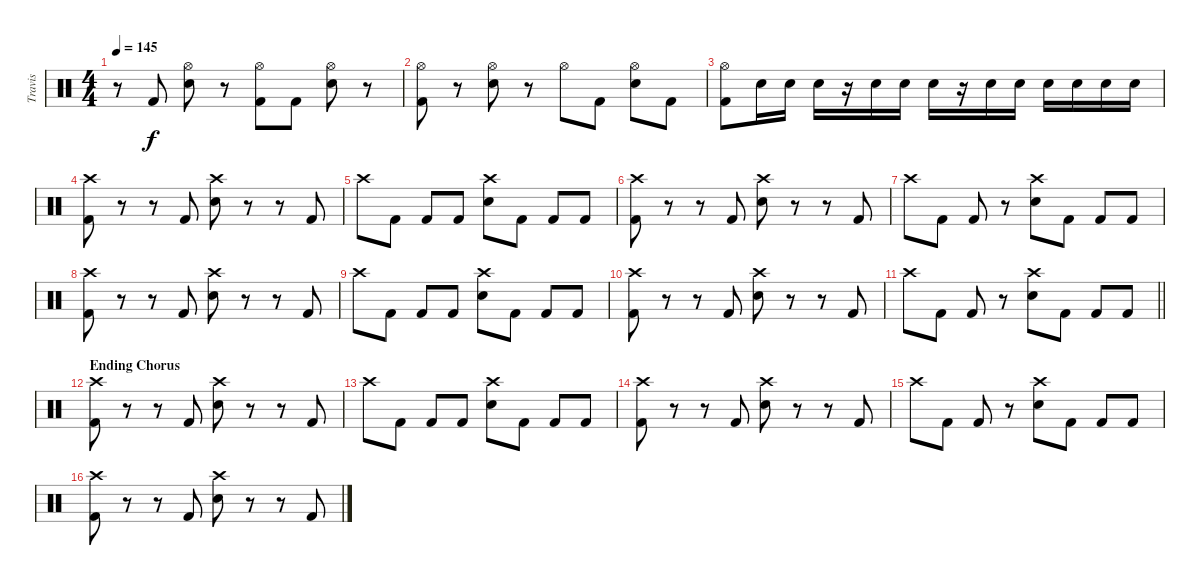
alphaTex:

\track ("Travis" "Travis") {instrument percussion}
\staff {score}
\articulation defaults
\ts (4 4)
\tempo 145
\clef neutral
\ks c
r.8{dy f} "Kick (hit) 2".8 ("Hi-Hat (open)" "Electric Snare (hit)").8 r.8 ("Hi-Hat (open)" "Kick (hit) 2").8 "Kick (hit) 2".8 ("Hi-Hat (open)" "Electric Snare (hit)").8 r.8 |
("Hi-Hat (open)" "Kick (hit) 2").8 r.8 ("Hi-Hat (open)" "Electric Snare (hit)").8 r.8 "Hi-Hat (open)".8 "Kick (hit) 2".8 ("Hi-Hat (open)" "Electric Snare (hit)").8 "Kick (hit) 2".8 |
("Hi-Hat (open)" "Kick (hit) 2").8 "Electric Snare (hit)".16 "Electric Snare (hit)".16 "Electric Snare (hit)".16 r.16 "Electric Snare (hit)".16 "Electric Snare (hit)".16 "Electric Snare (hit)".16 r.16 "Electric Snare (hit)".16 "Electric Snare (hit)".16 "Electric Snare (hit)".16 "Electric Snare (hit)".16 "Electric Snare (hit)".16 "Electric Snare (hit)".16 |
("Crash high (hit)" "Kick (hit) 2").8 r.8 r.8 "Kick (hit) 2".8 ("Crash high (hit)" "Electric Snare (hit)").8 r.8 r.8 "Kick (hit) 2".8 |
"Crash high (hit)".8 "Kick (hit) 2".8 "Kick (hit) 2".8 "Kick (hit) 2".8 ("Crash high (hit)" "Electric Snare (hit)").8 "Kick (hit) 2".8 "Kick (hit) 2".8 "Kick (hit) 2".8 |
("Crash high (hit)" "Kick (hit) 2").8 r.8 r.8 "Kick (hit) 2".8 ("Crash high (hit)" "Electric Snare (hit)").8 r.8 r.8 "Kick (hit) 2".8 |
"Crash high (hit)".8 "Kick (hit) 2".8 "Kick (hit) 2".8 r.8 ("Crash high (hit)" "Electric Snare (hit)").8 "Kick (hit) 2".8 "Kick (hit) 2".8 "Kick (hit) 2".8 |
("Crash high (hit)" "Kick (hit) 2").8 r.8 r.8 "Kick (hit) 2".8 ("Crash high (hit)" "Electric Snare (hit)").8 r.8 r.8 "Kick (hit) 2".8 |
"Crash high (hit)".8 "Kick (hit) 2".8 "Kick (hit) 2".8 "Kick (hit) 2".8 ("Crash high (hit)" "Electric Snare (hit)").8 "Kick (hit) 2".8 "Kick (hit) 2".8 "Kick (hit) 2".8 |
("Crash high (hit)" "Kick (hit) 2").8 r.8 r.8 "Kick (hit) 2".8 ("Crash high (hit)" "Electric Snare (hit)").8 r.8 r.8 "Kick (hit) 2".8 |
\barLineRight lightlight "Crash high (hit)".8 "Kick (hit) 2".8 "Kick (hit) 2".8
r.8 ("Crash high (hit)" "Electric Snare (hit)").8 "Kick (hit) 2".8 "Kick (hit) 2".8 "Kick (hit) 2".8 |
\section ("" "Ending Chorus")
("Crash high (hit)" "Kick (hit) 2").8 r.8 r.8 "Kick (hit) 2".8 ("Crash high (hit)" "Electric Snare (hit)").8 r.8 r.8 "Kick (hit) 2".8 |
"Crash high (hit)".8 "Kick (hit) 2".8 "Kick (hit) 2".8 "Kick (hit) 2".8 ("Crash high (hit)" "Electric Snare (hit)").8 "Kick (hit) 2".8 "Kick (hit) 2".8 "Kick (hit) 2".8 |
("Crash high (hit)" "Kick (hit) 2").8 r.8 r.8 "Kick (hit) 2".8 ("Crash high (hit)" "Electric Snare (hit)").8 r.8 r.8 "Kick (hit) 2".8 |
"Crash high (hit)".8 "Kick (hit) 2".8 "Kick (hit) 2".8 r.8 ("Crash high (hit)" "Electric Snare (hit)").8 "Kick (hit) 2".8 "Kick (hit) 2".8 "Kick (hit) 2".8 |
("Crash high (hit)" "Kick (hit) 2").8 r.8 r.8 "Kick (hit) 2".8 ("Crash high (hit)" "Electric Snare (hit)").8 r.8 r.8 "Kick (hit) 2".8
